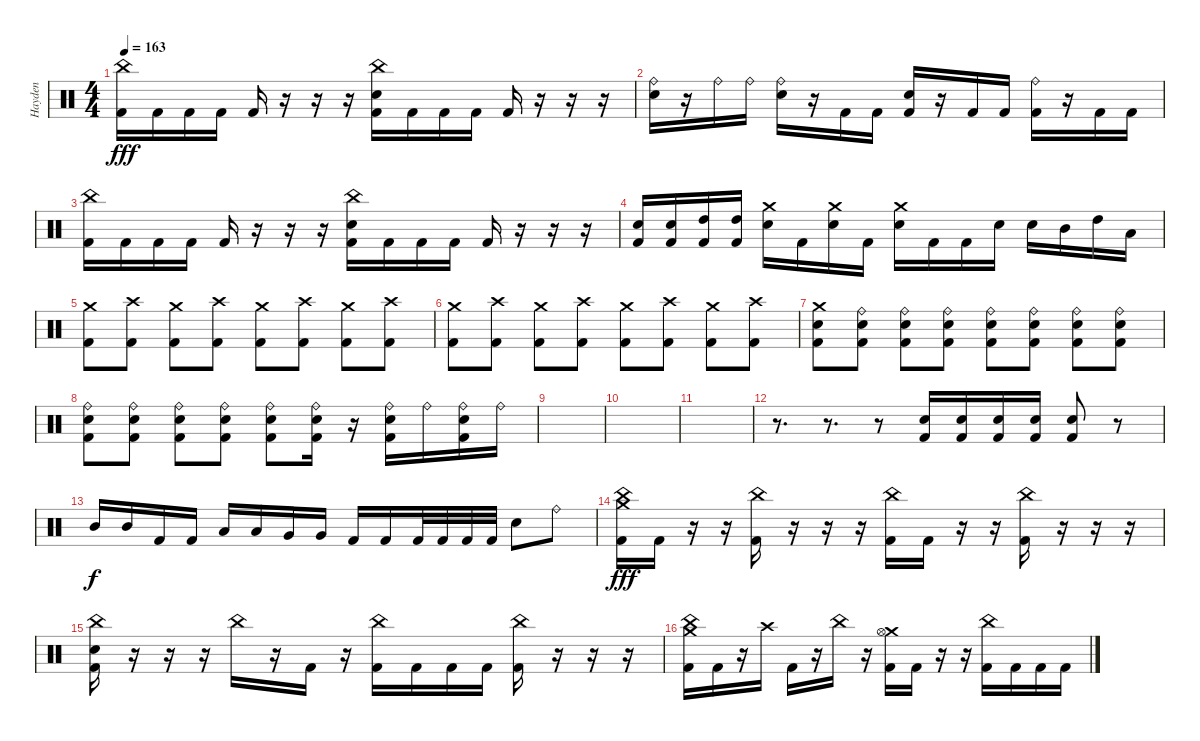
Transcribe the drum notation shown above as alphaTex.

\track ("Hayden" "Hayden") {instrument percussion}
\staff {score}
\articulation defaults
\ts (4 4)
\tempo 163
\clef neutral
\ks c
("China (hit)" "Kick (hit) 2").16{dy fff} "Kick (hit) 2".16 "Kick (hit) 2".16 "Kick (hit) 2".16 "Kick (hit) 2".16 r.16 r.16 r.16 ("China (hit)" "Electric Snare (hit)" "Kick (hit) 2").16 "Kick (hit) 2".16 "Kick (hit) 2".16 "Kick (hit) 2".16 "Kick (hit) 2".16 r.16 r.16 r.16 |
("Ride (bell)" "Electric Snare (hit)").16 r.16 "Ride (bell)".16 "Ride (bell)".16 ("Ride (bell)" "Electric Snare (hit)").16 r.16 "Kick (hit) 2".16 "Kick (hit) 2".16 ("Electric Snare (hit)" "Kick (hit) 2").16 r.16 "Kick (hit) 2".16 "Kick (hit) 2".16 ("Ride (bell)" "Kick (hit) 2").16 r.16 "Kick (hit) 2".16 "Kick (hit) 2".16 |
("China (hit)" "Kick (hit) 2").16 "Kick (hit) 2".16 "Kick (hit) 2".16 "Kick (hit) 2".16 "Kick (hit) 2".16 r.16 r.16 r.16 ("China (hit)" "Electric Snare (hit)" "Kick (hit) 2").16 "Kick (hit) 2".16 "Kick (hit) 2".16 "Kick (hit) 2".16 "Kick (hit) 2".16 r.16 r.16 r.16 |
("Electric Snare (hit)" "Kick (hit) 2").16 ("Electric Snare (hit)" "Kick (hit) 2").16 ("High Tom (hit)" "Kick (hit) 2").16 ("High Tom (hit)" "Kick (hit) 2").16 ("Crash medium (hit)" "Electric Snare (hit)").16 "Kick (hit) 2".16 ("Crash medium (hit)" "Electric Snare (hit)").16 "Kick (hit) 2".16 ("Crash medium (hit)" "Electric Snare (hit)").16 "Kick (hit) 2".16 "Kick (hit) 2".16 "Electric Snare (hit)".16 "Electric Snare (hit)".16 "Mid Tom (hit)".16 "High Tom (hit)".16 "Low Tom (hit)".16 |
("Crash medium (hit)" "Kick (hit) 2").8 ("Crash high (hit)" "Kick (hit) 2").8 ("Crash medium (hit)" "Kick (hit) 2").8 ("Crash high (hit)" "Kick (hit) 2").8 ("Crash medium (hit)" "Kick (hit) 2").8 ("Crash high (hit)" "Kick (hit) 2").8 ("Crash medium (hit)" "Kick (hit) 2").8 ("Crash high (hit)" "Kick (hit) 2").8 |
("Crash medium (hit)" "Kick (hit) 2").8 ("Crash high (hit)" "Kick (hit) 2").8 ("Crash medium (hit)" "Kick (hit) 2").8 ("Crash high (hit)" "Kick (hit) 2").8 ("Crash medium (hit)" "Kick (hit) 2").8 ("Crash high (hit)" "Kick (hit) 2").8 ("Crash medium (hit)" "Kick (hit) 2").8 ("Crash high (hit)" "Kick (hit) 2").8 |
("Crash medium (hit)" "Electric Snare (hit)" "Kick (hit) 2").8 ("Ride (bell)" "Electric Snare (hit)" "Kick (hit) 2").8 ("Ride (bell)" "Electric Snare (hit)" "Kick (hit) 2").8 ("Ride (bell)" "Electric Snare (hit)" "Kick (hit) 2").8 ("Ride (bell)" "Electric Snare (hit)" "Kick (hit) 2").8 ("Ride (bell)" "Electric Snare (hit)" "Kick (hit) 2").8 ("Ride (bell)" "Electric Snare (hit)" "Kick (hit) 2").8 ("Ride (bell)" "Electric Snare (hit)" "Kick (hit) 2").8 |
("Ride (bell)" "Electric Snare (hit)" "Kick (hit) 2").8 ("Ride (bell)" "Electric Snare (hit)" "Kick (hit) 2").8 ("Ride (bell)" "Electric Snare (hit)" "Kick (hit) 2").8 ("Ride (bell)" "Electric Snare (hit)" "Kick (hit) 2").8 ("Ride (bell)" "Electric Snare (hit)" "Kick (hit) 2").8 ("Ride (bell)" "Electric Snare (hit)" "Kick (hit) 2").16 r.16 ("Ride (bell)" "Electric Snare (hit)" "Kick (hit) 2").16 "Ride (bell)".16 ("Ride (bell)" "Electric Snare (hit)" "Kick (hit) 2").16 "Ride (bell)".16 |
|
|
|
r.8{d} r.8{d} r.8 ("Electric Snare (hit)" "Kick (hit) 2").16 ("Electric Snare (hit)" "Kick (hit) 2").16 ("Electric Snare (hit)" "Kick (hit) 2").16 ("Electric Snare (hit)" "Kick (hit) 2").16 ("Electric Snare (hit)" "Kick (hit) 2").8 r.8 |
"Mid Tom (hit)".16{dy f} "Mid Tom (hit)".16 "Kick (hit) 2".16 "Kick (hit) 2".16 "Low Tom (hit)".16 "Low Tom (hit)".16 "Very Low Tom (hit)".16 "Very Low Tom (hit)".16 "Kick (hit) 2".16 "Kick (hit) 2".16 "Kick (hit) 2".32 "Kick (hit) 2".32 "Kick (hit) 2".32 "Kick (hit) 2".32 "Electric Snare (hit)".8 "Ride (bell)".8 |
("Crash medium (hit)" "China (hit)" "Kick (hit) 2").16{dy fff} "Kick (hit) 2".16 r.16 r.16 ("China (hit)" "Kick (hit) 2").16 r.16 r.16 r.16 ("China (hit)" "Kick (hit) 2").16 "Kick (hit) 2".16 r.16 r.16 ("China (hit)" "Kick (hit) 2").16 r.16 r.16 r.16 |
("China (hit)" "Snare (hit) 2" "Kick (hit) 2").16 r.16 r.16 r.16 "China (hit)".16 r.16 "Kick (hit) 2".16 r.16 ("China (hit)" "Kick (hit) 2").16 "Kick (hit) 2".16 "Kick (hit) 2".16 "Kick (hit) 2".16 ("China (hit)" "Kick (hit) 2").16 r.16 r.16 r.16 |
("Crash medium (hit)" "China (hit)" "Kick (hit) 2").16 "Kick (hit) 2".16 r.16 "Crash high (hit)".16 "Kick (hit) 2".16 r.16 "China (hit)".16 r.16 ("Crash medium (hit)" "Hi-Hat (open)" "Kick (hit) 2").16 "Kick (hit) 2".16 r.16 r.16 ("China (hit)" "Kick (hit) 2").16 "Kick (hit) 2".16 "Kick (hit) 2".16 "Kick (hit) 2".16
